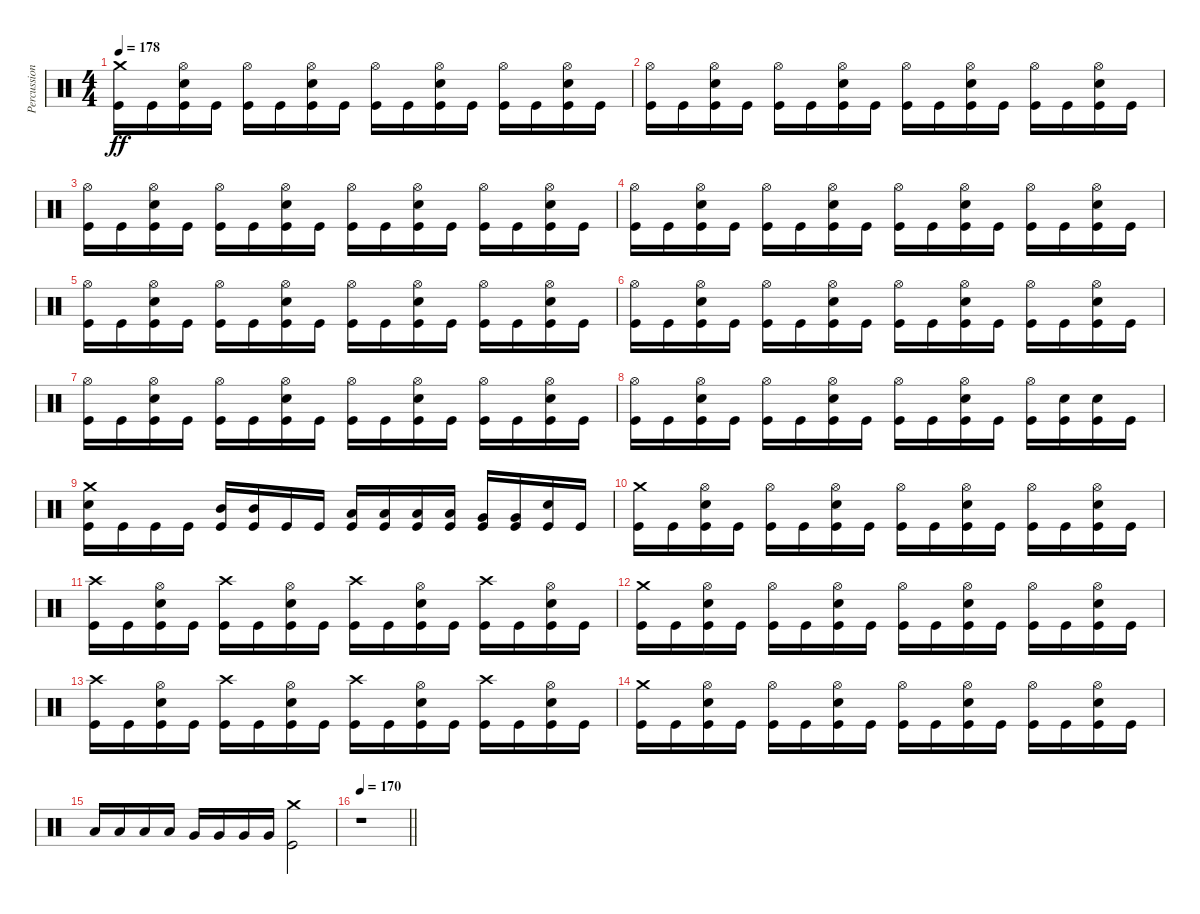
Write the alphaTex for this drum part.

\track ("Percussion" "Percussion") {instrument percussion}
\staff {score}
\articulation defaults
\ts (4 4)
\tempo 178
\clef neutral
\ks c
("Crash medium (hit)" "Kick (hit)").16{dy ff} "Kick (hit)".16 ("Hi-Hat (open)" "Snare (hit) 2" "Kick (hit)").16 "Kick (hit)".16 ("Hi-Hat (open)" "Kick (hit)").16 "Kick (hit)".16 ("Hi-Hat (open)" "Snare (hit) 2" "Kick (hit)").16 "Kick (hit)".16 ("Hi-Hat (open)" "Kick (hit)").16 "Kick (hit)".16 ("Hi-Hat (open)" "Snare (hit) 2" "Kick (hit)").16 "Kick (hit)".16 ("Hi-Hat (open)" "Kick (hit)").16 "Kick (hit)".16 ("Hi-Hat (open)" "Snare (hit) 2" "Kick (hit)").16 "Kick (hit)".16 |
("Hi-Hat (open)" "Kick (hit)").16 "Kick (hit)".16 ("Hi-Hat (open)" "Snare (hit) 2" "Kick (hit)").16 "Kick (hit)".16 ("Hi-Hat (open)" "Kick (hit)").16 "Kick (hit)".16 ("Hi-Hat (open)" "Snare (hit) 2" "Kick (hit)").16 "Kick (hit)".16 ("Hi-Hat (open)" "Kick (hit)").16 "Kick (hit)".16 ("Hi-Hat (open)" "Snare (hit) 2" "Kick (hit)").16 "Kick (hit)".16 ("Hi-Hat (open)" "Kick (hit)").16 "Kick (hit)".16 ("Hi-Hat (open)" "Snare (hit) 2" "Kick (hit)").16 "Kick (hit)".16 |
("Hi-Hat (open)" "Kick (hit)").16 "Kick (hit)".16 ("Hi-Hat (open)" "Snare (hit) 2" "Kick (hit)").16 "Kick (hit)".16 ("Hi-Hat (open)" "Kick (hit)").16 "Kick (hit)".16 ("Hi-Hat (open)" "Snare (hit) 2" "Kick (hit)").16 "Kick (hit)".16 ("Hi-Hat (open)" "Kick (hit)").16 "Kick (hit)".16 ("Hi-Hat (open)" "Snare (hit) 2" "Kick (hit)").16 "Kick (hit)".16 ("Hi-Hat (open)" "Kick (hit)").16 "Kick (hit)".16 ("Hi-Hat (open)" "Snare (hit) 2" "Kick (hit)").16 "Kick (hit)".16 |
("Hi-Hat (open)" "Kick (hit)").16 "Kick (hit)".16 ("Hi-Hat (open)" "Snare (hit) 2" "Kick (hit)").16 "Kick (hit)".16 ("Hi-Hat (open)" "Kick (hit)").16 "Kick (hit)".16 ("Hi-Hat (open)" "Snare (hit) 2" "Kick (hit)").16 "Kick (hit)".16 ("Hi-Hat (open)" "Kick (hit)").16 "Kick (hit)".16 ("Hi-Hat (open)" "Snare (hit) 2" "Kick (hit)").16 "Kick (hit)".16 ("Hi-Hat (open)" "Kick (hit)").16 "Kick (hit)".16 ("Hi-Hat (open)" "Snare (hit) 2" "Kick (hit)").16 "Kick (hit)".16 |
("Hi-Hat (open)" "Kick (hit)").16 "Kick (hit)".16 ("Hi-Hat (open)" "Snare (hit) 2" "Kick (hit)").16 "Kick (hit)".16 ("Hi-Hat (open)" "Kick (hit)").16 "Kick (hit)".16 ("Hi-Hat (open)" "Snare (hit) 2" "Kick (hit)").16 "Kick (hit)".16 ("Hi-Hat (open)" "Kick (hit)").16 "Kick (hit)".16 ("Hi-Hat (open)" "Snare (hit) 2" "Kick (hit)").16 "Kick (hit)".16 ("Hi-Hat (open)" "Kick (hit)").16 "Kick (hit)".16 ("Hi-Hat (open)" "Snare (hit) 2" "Kick (hit)").16 "Kick (hit)".16 |
("Hi-Hat (open)" "Kick (hit)").16 "Kick (hit)".16 ("Hi-Hat (open)" "Snare (hit) 2" "Kick (hit)").16 "Kick (hit)".16 ("Hi-Hat (open)" "Kick (hit)").16 "Kick (hit)".16 ("Hi-Hat (open)" "Snare (hit) 2" "Kick (hit)").16 "Kick (hit)".16 ("Hi-Hat (open)" "Kick (hit)").16 "Kick (hit)".16 ("Hi-Hat (open)" "Snare (hit) 2" "Kick (hit)").16 "Kick (hit)".16 ("Hi-Hat (open)" "Kick (hit)").16 "Kick (hit)".16 ("Hi-Hat (open)" "Snare (hit) 2" "Kick (hit)").16 "Kick (hit)".16 |
("Hi-Hat (open)" "Kick (hit)").16 "Kick (hit)".16 ("Hi-Hat (open)" "Snare (hit) 2" "Kick (hit)").16 "Kick (hit)".16 ("Hi-Hat (open)" "Kick (hit)").16 "Kick (hit)".16 ("Hi-Hat (open)" "Snare (hit) 2" "Kick (hit)").16 "Kick (hit)".16 ("Hi-Hat (open)" "Kick (hit)").16 "Kick (hit)".16 ("Hi-Hat (open)" "Snare (hit) 2" "Kick (hit)").16 "Kick (hit)".16 ("Hi-Hat (open)" "Kick (hit)").16 "Kick (hit)".16 ("Hi-Hat (open)" "Snare (hit) 2" "Kick (hit)").16 "Kick (hit)".16 |
("Hi-Hat (open)" "Kick (hit)").16 "Kick (hit)".16 ("Hi-Hat (open)" "Snare (hit) 2" "Kick (hit)").16 "Kick (hit)".16 ("Hi-Hat (open)" "Kick (hit)").16 "Kick (hit)".16 ("Hi-Hat (open)" "Snare (hit) 2" "Kick (hit)").16 "Kick (hit)".16 ("Hi-Hat (open)" "Kick (hit)").16 "Kick (hit)".16 ("Hi-Hat (open)" "Snare (hit) 2" "Kick (hit)").16 "Kick (hit)".16 ("Hi-Hat (open)" "Kick (hit)").16 ("Snare (hit) 2" "Kick (hit)").16 ("Snare (hit) 2" "Kick (hit)").16 "Kick (hit)".16 |
("Crash medium (hit)" "Snare (hit) 2" "Kick (hit)").16 "Kick (hit)".16 "Kick (hit)".16 "Kick (hit)".16 ("Mid Tom (hit)" "Kick (hit)").16 ("Mid Tom (hit)" "Kick (hit)").16 "Kick (hit)".16 "Kick (hit)".16 ("Low Tom (hit)" "Kick (hit)").16 ("Low Tom (hit)" "Kick (hit)").16 ("Low Tom (hit)" "Kick (hit)").16 ("Low Tom (hit)" "Kick (hit)").16 ("Very Low Tom (hit)" "Kick (hit)").16 ("Very Low Tom (hit)" "Kick (hit)").16 ("Snare (hit) 2" "Kick (hit)").16 "Kick (hit)".16 |
("Crash medium (hit)" "Kick (hit)").16 "Kick (hit)".16 ("Hi-Hat (open)" "Snare (hit) 2" "Kick (hit)").16 "Kick (hit)".16 ("Hi-Hat (open)" "Kick (hit)").16 "Kick (hit)".16 ("Hi-Hat (open)" "Snare (hit) 2" "Kick (hit)").16 "Kick (hit)".16 ("Hi-Hat (open)" "Kick (hit)").16 "Kick (hit)".16 ("Hi-Hat (open)" "Snare (hit) 2" "Kick (hit)").16 "Kick (hit)".16 ("Hi-Hat (open)" "Kick (hit)").16 "Kick (hit)".16 ("Hi-Hat (open)" "Snare (hit) 2" "Kick (hit)").16 "Kick (hit)".16 |
("Crash high (hit)" "Kick (hit)").16 "Kick (hit)".16 ("Hi-Hat (open)" "Snare (hit) 2" "Kick (hit)").16 "Kick (hit)".16 ("Crash high (hit)" "Kick (hit)").16 "Kick (hit)".16 ("Hi-Hat (open)" "Snare (hit) 2" "Kick (hit)").16 "Kick (hit)".16 ("Crash high (hit)" "Kick (hit)").16 "Kick (hit)".16 ("Hi-Hat (open)" "Snare (hit) 2" "Kick (hit)").16 "Kick (hit)".16 ("Crash high (hit)" "Kick (hit)").16 "Kick (hit)".16 ("Hi-Hat (open)" "Snare (hit) 2" "Kick (hit)").16 "Kick (hit)".16 |
("Crash medium (hit)" "Kick (hit)").16 "Kick (hit)".16 ("Hi-Hat (open)" "Snare (hit) 2" "Kick (hit)").16 "Kick (hit)".16 ("Hi-Hat (open)" "Kick (hit)").16 "Kick (hit)".16 ("Hi-Hat (open)" "Snare (hit) 2" "Kick (hit)").16 "Kick (hit)".16 ("Hi-Hat (open)" "Kick (hit)").16 "Kick (hit)".16 ("Hi-Hat (open)" "Snare (hit) 2" "Kick (hit)").16 "Kick (hit)".16 ("Hi-Hat (open)" "Kick (hit)").16 "Kick (hit)".16 ("Hi-Hat (open)" "Snare (hit) 2" "Kick (hit)").16 "Kick (hit)".16 |
("Crash high (hit)" "Kick (hit)").16 "Kick (hit)".16 ("Hi-Hat (open)" "Snare (hit) 2" "Kick (hit)").16 "Kick (hit)".16 ("Crash high (hit)" "Kick (hit)").16 "Kick (hit)".16 ("Hi-Hat (open)" "Snare (hit) 2" "Kick (hit)").16 "Kick (hit)".16 ("Crash high (hit)" "Kick (hit)").16 "Kick (hit)".16 ("Hi-Hat (open)" "Snare (hit) 2" "Kick (hit)").16 "Kick (hit)".16 ("Crash high (hit)" "Kick (hit)").16 "Kick (hit)".16 ("Hi-Hat (open)" "Snare (hit) 2" "Kick (hit)").16 "Kick (hit)".16 |
("Crash medium (hit)" "Kick (hit)").16 "Kick (hit)".16 ("Hi-Hat (open)" "Snare (hit) 2" "Kick (hit)").16 "Kick (hit)".16 ("Hi-Hat (open)" "Kick (hit)").16 "Kick (hit)".16 ("Hi-Hat (open)" "Snare (hit) 2" "Kick (hit)").16 "Kick (hit)".16 ("Hi-Hat (open)" "Kick (hit)").16 "Kick (hit)".16 ("Hi-Hat (open)" "Snare (hit) 2" "Kick (hit)").16 "Kick (hit)".16 ("Hi-Hat (open)" "Kick (hit)").16 "Kick (hit)".16 ("Hi-Hat (open)" "Snare (hit) 2" "Kick (hit)").16 "Kick (hit)".16 |
"Low Tom (hit)".16 "Low Tom (hit)".16 "Low Tom (hit)".16 "Low Tom (hit)".16 "Very Low Tom (hit)".16 "Very Low Tom (hit)".16 "Very Low Tom (hit)".16 "Very Low Tom (hit)".16 ("Crash medium (hit)" "Kick (hit)").2 |
\tempo 170
\barLineRight lightlight
r.1
